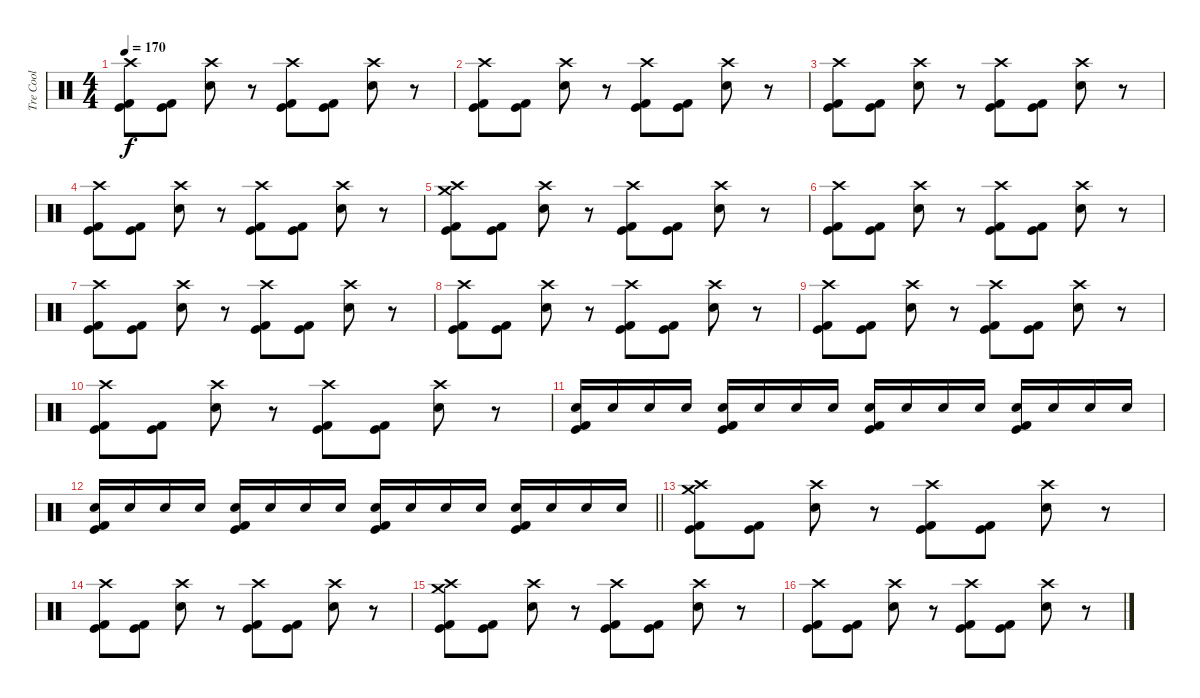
\track ("Tre Cool" "Tre Cool") {instrument percussion}
\staff {score}
\articulation defaults
\ts (4 4)
\tempo 170
\clef neutral
\ks c
("Crash high (hit)" "Kick (hit)" "Kick (hit) 2").8{dy f} ("Kick (hit)" "Kick (hit) 2").8 ("Crash high (hit)" "Electric Snare (hit)").8 r.8 ("Crash high (hit)" "Kick (hit)" "Kick (hit) 2").8 ("Kick (hit)" "Kick (hit) 2").8 ("Crash high (hit)" "Electric Snare (hit)").8 r.8 |
("Crash high (hit)" "Kick (hit)" "Kick (hit) 2").8 ("Kick (hit)" "Kick (hit) 2").8 ("Crash high (hit)" "Electric Snare (hit)").8 r.8 ("Crash high (hit)" "Kick (hit)" "Kick (hit) 2").8 ("Kick (hit)" "Kick (hit) 2").8 ("Crash high (hit)" "Electric Snare (hit)").8 r.8 |
("Crash high (hit)" "Kick (hit)" "Kick (hit) 2").8 ("Kick (hit)" "Kick (hit) 2").8 ("Crash high (hit)" "Electric Snare (hit)").8 r.8 ("Crash high (hit)" "Kick (hit)" "Kick (hit) 2").8 ("Kick (hit)" "Kick (hit) 2").8 ("Crash high (hit)" "Electric Snare (hit)").8 r.8 |
("Crash high (hit)" "Kick (hit)" "Kick (hit) 2").8 ("Kick (hit)" "Kick (hit) 2").8 ("Crash high (hit)" "Electric Snare (hit)").8 r.8 ("Crash high (hit)" "Kick (hit)" "Kick (hit) 2").8 ("Kick (hit)" "Kick (hit) 2").8 ("Crash high (hit)" "Electric Snare (hit)").8 r.8 |
("Crash high (hit)" "Crash medium (hit)" "Kick (hit)" "Kick (hit) 2").8 ("Kick (hit)" "Kick (hit) 2").8 ("Crash high (hit)" "Electric Snare (hit)").8 r.8 ("Crash high (hit)" "Kick (hit)" "Kick (hit) 2").8 ("Kick (hit)" "Kick (hit) 2").8 ("Crash high (hit)" "Electric Snare (hit)").8 r.8 |
("Crash high (hit)" "Kick (hit)" "Kick (hit) 2").8 ("Kick (hit)" "Kick (hit) 2").8 ("Crash high (hit)" "Electric Snare (hit)").8 r.8 ("Crash high (hit)" "Kick (hit)" "Kick (hit) 2").8 ("Kick (hit)" "Kick (hit) 2").8 ("Crash high (hit)" "Electric Snare (hit)").8 r.8 |
("Crash high (hit)" "Kick (hit)" "Kick (hit) 2").8 ("Kick (hit)" "Kick (hit) 2").8 ("Crash high (hit)" "Electric Snare (hit)").8 r.8 ("Crash high (hit)" "Kick (hit)" "Kick (hit) 2").8 ("Kick (hit)" "Kick (hit) 2").8 ("Crash high (hit)" "Electric Snare (hit)").8 r.8 |
("Crash high (hit)" "Kick (hit)" "Kick (hit) 2").8 ("Kick (hit)" "Kick (hit) 2").8 ("Crash high (hit)" "Electric Snare (hit)").8 r.8 ("Crash high (hit)" "Kick (hit)" "Kick (hit) 2").8 ("Kick (hit)" "Kick (hit) 2").8 ("Crash high (hit)" "Electric Snare (hit)").8 r.8 |
("Crash high (hit)" "Kick (hit)" "Kick (hit) 2").8 ("Kick (hit)" "Kick (hit) 2").8 ("Crash high (hit)" "Electric Snare (hit)").8 r.8 ("Crash high (hit)" "Kick (hit)" "Kick (hit) 2").8 ("Kick (hit)" "Kick (hit) 2").8 ("Crash high (hit)" "Electric Snare (hit)").8 r.8 |
("Crash high (hit)" "Kick (hit)" "Kick (hit) 2").8 ("Kick (hit)" "Kick (hit) 2").8 ("Crash high (hit)" "Electric Snare (hit)").8 r.8 ("Crash high (hit)" "Kick (hit)" "Kick (hit) 2").8 ("Kick (hit)" "Kick (hit) 2").8 ("Crash high (hit)" "Electric Snare (hit)").8 r.8 |
("Electric Snare (hit)" "Kick (hit)" "Kick (hit) 2").16 "Electric Snare (hit)".16 "Electric Snare (hit)".16 "Electric Snare (hit)".16 ("Electric Snare (hit)" "Kick (hit)" "Kick (hit) 2").16 "Electric Snare (hit)".16 "Electric Snare (hit)".16 "Electric Snare (hit)".16 ("Electric Snare (hit)" "Kick (hit)" "Kick (hit) 2").16 "Electric Snare (hit)".16 "Electric Snare (hit)".16 "Electric Snare (hit)".16 ("Electric Snare (hit)" "Kick (hit)" "Kick (hit) 2").16 "Electric Snare (hit)".16 "Electric Snare (hit)".16 "Electric Snare (hit)".16 |
\barLineRight lightlight
("Electric Snare (hit)" "Kick (hit)" "Kick (hit) 2").16 "Electric Snare (hit)".16 "Electric Snare (hit)".16 "Electric Snare (hit)".16 ("Electric Snare (hit)" "Kick (hit)" "Kick (hit) 2").16 "Electric Snare (hit)".16 "Electric Snare (hit)".16 "Electric Snare (hit)".16 ("Electric Snare (hit)" "Kick (hit)" "Kick (hit) 2").16 "Electric Snare (hit)".16 "Electric Snare (hit)".16 "Electric Snare (hit)".16 ("Electric Snare (hit)" "Kick (hit)" "Kick (hit) 2").16 "Electric Snare (hit)".16 "Electric Snare (hit)".16 "Electric Snare (hit)".16 |
("Crash high (hit)" "Crash medium (hit)" "Kick (hit)" "Kick (hit) 2").8 ("Kick (hit)" "Kick (hit) 2").8 ("Crash high (hit)" "Electric Snare (hit)").8 r.8 ("Crash high (hit)" "Kick (hit)" "Kick (hit) 2").8 ("Kick (hit)" "Kick (hit) 2").8 ("Crash high (hit)" "Electric Snare (hit)").8 r.8 |
("Crash high (hit)" "Kick (hit)" "Kick (hit) 2").8 ("Kick (hit)" "Kick (hit) 2").8 ("Crash high (hit)" "Electric Snare (hit)").8 r.8 ("Crash high (hit)" "Kick (hit)" "Kick (hit) 2").8 ("Kick (hit)" "Kick (hit) 2").8 ("Crash high (hit)" "Electric Snare (hit)").8 r.8 |
("Crash high (hit)" "Crash medium (hit)" "Kick (hit)" "Kick (hit) 2").8 ("Kick (hit)" "Kick (hit) 2").8 ("Crash high (hit)" "Electric Snare (hit)").8 r.8 ("Crash high (hit)" "Kick (hit)" "Kick (hit) 2").8 ("Kick (hit)" "Kick (hit) 2").8 ("Crash high (hit)" "Electric Snare (hit)").8 r.8 |
("Crash high (hit)" "Kick (hit)" "Kick (hit) 2").8 ("Kick (hit)" "Kick (hit) 2").8 ("Crash high (hit)" "Electric Snare (hit)").8 r.8 ("Crash high (hit)" "Kick (hit)" "Kick (hit) 2").8 ("Kick (hit)" "Kick (hit) 2").8 ("Crash high (hit)" "Electric Snare (hit)").8 r.8
